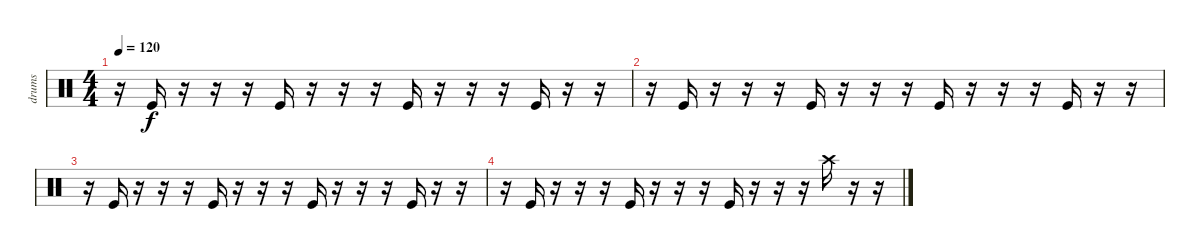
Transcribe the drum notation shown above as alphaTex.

\track ("drums" "drums") {instrument percussion}
\staff {score}
\articulation defaults
\ts (4 4)
\tempo 120
\clef neutral
\ks c
r.16{dy f} "Kick (hit)".16 r.16 r.16 r.16 "Kick (hit)".16 r.16 r.16 r.16 "Kick (hit)".16 r.16 r.16 r.16 "Kick (hit)".16 r.16 r.16 |
r.16 "Kick (hit)".16 r.16 r.16 r.16 "Kick (hit)".16 r.16 r.16 r.16 "Kick (hit)".16 r.16 r.16 r.16 "Kick (hit)".16 r.16 r.16 |
r.16 "Kick (hit)".16 r.16 r.16 r.16 "Kick (hit)".16 r.16 r.16 r.16 "Kick (hit)".16 r.16 r.16 r.16 "Kick (hit)".16 r.16 r.16 |
r.16 "Kick (hit)".16 r.16 r.16 r.16 "Kick (hit)".16 r.16 r.16 r.16 "Kick (hit)".16 r.16 r.16 r.16 "Crash high (hit)".16 r.16 r.16
